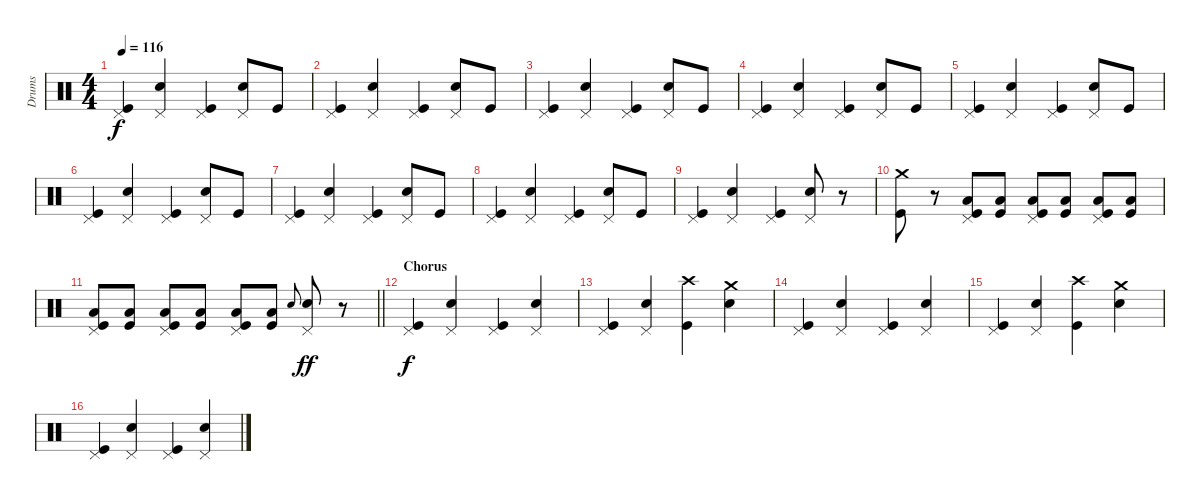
\track ("Drums" "Drums") {instrument percussion}
\staff {score}
\articulation defaults
\ts (4 4)
\tempo 116
\clef neutral
\ks c
("Pedal Hi-Hat (hit)" "Kick (hit)").4{dy f} ("Pedal Hi-Hat (hit)" "Electric Snare (hit)").4 ("Pedal Hi-Hat (hit)" "Kick (hit)").4 ("Pedal Hi-Hat (hit)" "Electric Snare (hit)").8 "Kick (hit)".8 |
("Pedal Hi-Hat (hit)" "Kick (hit)").4 ("Pedal Hi-Hat (hit)" "Electric Snare (hit)").4 ("Pedal Hi-Hat (hit)" "Kick (hit)").4 ("Pedal Hi-Hat (hit)" "Electric Snare (hit)").8 "Kick (hit)".8 |
("Pedal Hi-Hat (hit)" "Kick (hit)").4 ("Pedal Hi-Hat (hit)" "Electric Snare (hit)").4 ("Pedal Hi-Hat (hit)" "Kick (hit)").4 ("Pedal Hi-Hat (hit)" "Electric Snare (hit)").8 "Kick (hit)".8 |
("Pedal Hi-Hat (hit)" "Kick (hit)").4 ("Pedal Hi-Hat (hit)" "Electric Snare (hit)").4 ("Pedal Hi-Hat (hit)" "Kick (hit)").4 ("Pedal Hi-Hat (hit)" "Electric Snare (hit)").8 "Kick (hit)".8 |
("Pedal Hi-Hat (hit)" "Kick (hit)").4 ("Pedal Hi-Hat (hit)" "Electric Snare (hit)").4 ("Pedal Hi-Hat (hit)" "Kick (hit)").4 ("Pedal Hi-Hat (hit)" "Electric Snare (hit)").8 "Kick (hit)".8 |
("Pedal Hi-Hat (hit)" "Kick (hit)").4 ("Pedal Hi-Hat (hit)" "Electric Snare (hit)").4 ("Pedal Hi-Hat (hit)" "Kick (hit)").4 ("Pedal Hi-Hat (hit)" "Electric Snare (hit)").8 "Kick (hit)".8 |
("Pedal Hi-Hat (hit)" "Kick (hit)").4 ("Pedal Hi-Hat (hit)" "Electric Snare (hit)").4 ("Pedal Hi-Hat (hit)" "Kick (hit)").4 ("Pedal Hi-Hat (hit)" "Electric Snare (hit)").8 "Kick (hit)".8 |
("Pedal Hi-Hat (hit)" "Kick (hit)").4 ("Pedal Hi-Hat (hit)" "Electric Snare (hit)").4 ("Pedal Hi-Hat (hit)" "Kick (hit)").4 ("Pedal Hi-Hat (hit)" "Electric Snare (hit)").8 "Kick (hit)".8 |
("Pedal Hi-Hat (hit)" "Kick (hit)").4 ("Pedal Hi-Hat (hit)" "Electric Snare (hit)").4 ("Pedal Hi-Hat (hit)" "Kick (hit)").4 ("Pedal Hi-Hat (hit)" "Electric Snare (hit)").8 r.8 |
("Crash medium (hit)" "Kick (hit)").8 r.8 ("Pedal Hi-Hat (hit)" "Low Floor Tom (hit)" "Kick (hit)").8 ("Low Floor Tom (hit)" "Kick (hit)").8 ("Pedal Hi-Hat (hit)" "Low Floor Tom (hit)" "Kick (hit)").8 ("Low Floor Tom (hit)" "Kick (hit)").8 ("Pedal Hi-Hat (hit)" "Low Floor Tom (hit)" "Kick (hit)").8 ("Low Floor Tom (hit)" "Kick (hit)").8 |
\barLineRight lightlight
("Pedal Hi-Hat (hit)" "Low Floor Tom (hit)" "Kick (hit)").8 ("Low Floor Tom (hit)" "Kick (hit)").8 ("Pedal Hi-Hat (hit)" "Low Floor Tom (hit)" "Kick (hit)").8 ("Low Floor Tom (hit)" "Kick (hit)").8 ("Pedal Hi-Hat (hit)" "Low Floor Tom (hit)" "Kick (hit)").8 ("Low Floor Tom (hit)" "Kick (hit)").8 "Snare (hit) 2".8{gr onbeat} ("Pedal Hi-Hat (hit)" "Snare (hit) 2").8{dy ff} r.8 |
\section ("" "Chorus")
("Pedal Hi-Hat (hit)" "Kick (hit)").4{dy f} ("Pedal Hi-Hat (hit)" "Electric Snare (hit)").4 ("Pedal Hi-Hat (hit)" "Kick (hit)").4 ("Pedal Hi-Hat (hit)" "Electric Snare (hit)").4 |
("Pedal Hi-Hat (hit)" "Kick (hit)").4 ("Pedal Hi-Hat (hit)" "Electric Snare (hit)").4 ("Crash high (hit)" "Kick (hit)").4 ("Crash medium (hit)" "Electric Snare (hit)").4 |
("Pedal Hi-Hat (hit)" "Kick (hit)").4 ("Pedal Hi-Hat (hit)" "Electric Snare (hit)").4 ("Pedal Hi-Hat (hit)" "Kick (hit)").4 ("Pedal Hi-Hat (hit)" "Electric Snare (hit)").4 |
("Pedal Hi-Hat (hit)" "Kick (hit)").4 ("Pedal Hi-Hat (hit)" "Electric Snare (hit)").4 ("Crash high (hit)" "Kick (hit)").4 ("Crash medium (hit)" "Electric Snare (hit)").4 |
("Pedal Hi-Hat (hit)" "Kick (hit)").4 ("Pedal Hi-Hat (hit)" "Electric Snare (hit)").4 ("Pedal Hi-Hat (hit)" "Kick (hit)").4 ("Pedal Hi-Hat (hit)" "Electric Snare (hit)").4
